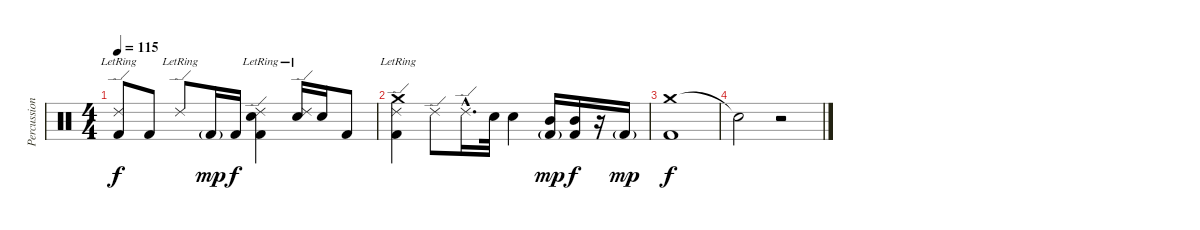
\track ("Percussion" "Percussion") {instrument percussion}
\staff {score}
\articulation defaults
\ts (4 4)
\tempo 115
\clef neutral
\ks c
("Ride (edge) 2"{lr} "Kick (hit) 2").8{dy f} "Kick (hit) 2".8 "Ride (edge) 2"{lr}.8 "Kick (hit) 2"{g}.16{dy mp} "Kick (hit) 2".16{dy f} ("Ride (edge) 2"{lr} "Snare (hit) 2" "Kick (hit) 2").4 ("Ride (edge) 2"{lr} "Snare (hit) 2").16 "Snare (hit) 2".16 "Kick (hit) 2".8 |
("Crash medium (hit)"{lr} "Ride (edge) 2"{lr} "Kick (hit) 2").4 "Ride (edge) 2".8 "Ride (edge) 2"{hac}.16{d} "Snare (hit) 2".32 "Snare (hit) 2".4 ("Mid Tom (hit)" "Kick (hit) 2"{g}).16{dy mp} ("Mid Tom (hit)" "Kick (hit) 2").16{dy f} r.16 "Kick (hit) 2"{g}.16{dy mp} |
("Crash medium (hit)" "Kick (hit) 2").1{dy f} |
"Snare (hit)"{t}.2 r.2
